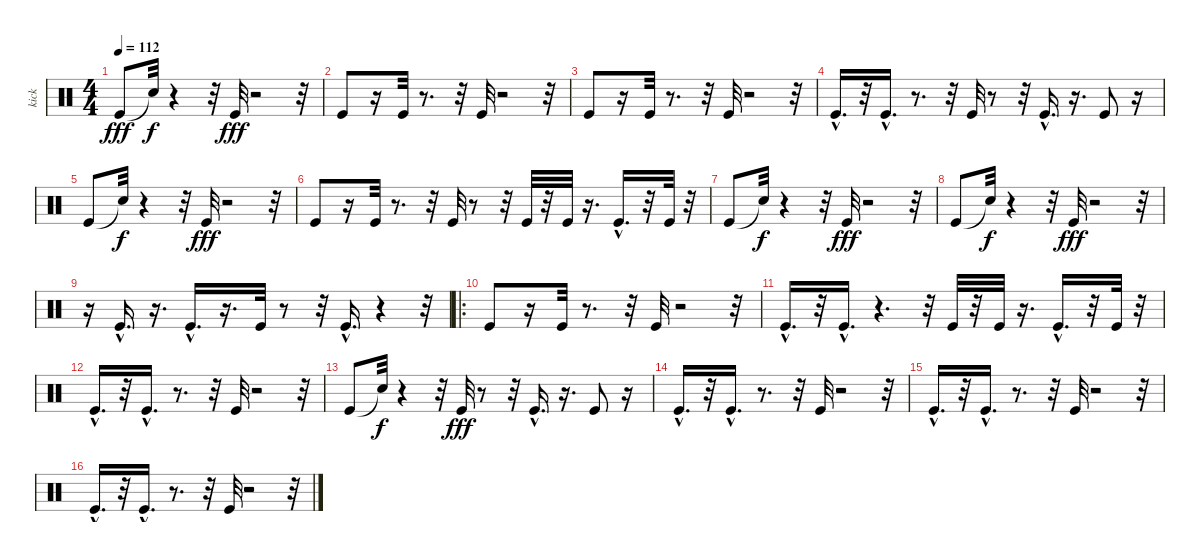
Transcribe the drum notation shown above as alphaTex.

\track ("kick" "kick") {instrument percussion}
\staff {score}
\articulation defaults
\ts (4 4)
\tempo 112
\clef neutral
\ks c "Kick (hit)".8{dy fff} "Snare (hit)"{t}.32{dy f}
r.4 r.32 "Kick (hit)".32{dy fff} r.2 r.32 |
"Kick (hit)".8 r.16 "Kick (hit)".32 r.8{d} r.32 "Kick (hit)".32 r.2 r.32 |
"Kick (hit)".8 r.16 "Kick (hit)".32 r.8{d} r.32 "Kick (hit)".32 r.2 r.32 |
"Kick (hit)"{hac}.16{d} r.32 "Kick (hit)"{hac}.16{d} r.8{d} r.32 "Kick (hit)".32 r.8 r.32 "Kick (hit)"{hac}.16{d} r.16{d} "Kick (hit)".8 r.16 |
"Kick (hit)".8 "Snare (hit)"{t}.32{dy f} r.4 r.32 "Kick (hit)".32{dy fff} r.2 r.32 |
"Kick (hit)".8 r.16 "Kick (hit)".32 r.8{d} r.32 "Kick (hit)".32 r.8 r.32 "Kick (hit)".32 r.32 "Kick (hit)".32 r.16{d} "Kick (hit)"{hac}.16{d} r.32 "Kick (hit)".32 r.32 |
"Kick (hit)".8 "Snare (hit)"{t}.32{dy f} r.4 r.32 "Kick (hit)".32{dy fff} r.2 r.32 |
"Kick (hit)".8 "Snare (hit)"{t}.32{dy f} r.4 r.32 "Kick (hit)".32{dy fff} r.2 r.32 |
r.16 "Kick (hit)"{hac}.16{d} r.16{d} "Kick (hit)"{hac}.16{d} r.16{d} "Kick (hit)".32 r.8 r.32 "Kick (hit)"{hac}.16{d} r.4 r.32 |
\ro "Kick (hit)".8
r.16 "Kick (hit)".32 r.8{d} r.32 "Kick (hit)".32 r.2 r.32 |
"Kick (hit)"{hac}.16{d} r.32 "Kick (hit)"{hac}.16{d} r.4{d} r.32 "Kick (hit)".32 r.32 "Kick (hit)".32 r.16{d} "Kick (hit)"{hac}.16{d} r.32 "Kick (hit)".32 r.32 |
"Kick (hit)"{hac}.16{d} r.32 "Kick (hit)"{hac}.16{d} r.8{d} r.32 "Kick (hit)".32 r.2 r.32 |
"Kick (hit)".8 "Snare (hit)"{t}.32{dy f} r.4 r.32 "Kick (hit)".32{dy fff} r.8 r.32 "Kick (hit)"{hac}.16{d} r.16{d} "Kick (hit)".8 r.16 |
"Kick (hit)"{hac}.16{d} r.32 "Kick (hit)"{hac}.16{d} r.8{d} r.32 "Kick (hit)".32 r.2 r.32 |
"Kick (hit)"{hac}.16{d} r.32 "Kick (hit)"{hac}.16{d} r.8{d} r.32 "Kick (hit)".32 r.2 r.32 |
"Kick (hit)"{hac}.16{d} r.32 "Kick (hit)"{hac}.16{d} r.8{d} r.32 "Kick (hit)".32 r.2 r.32
